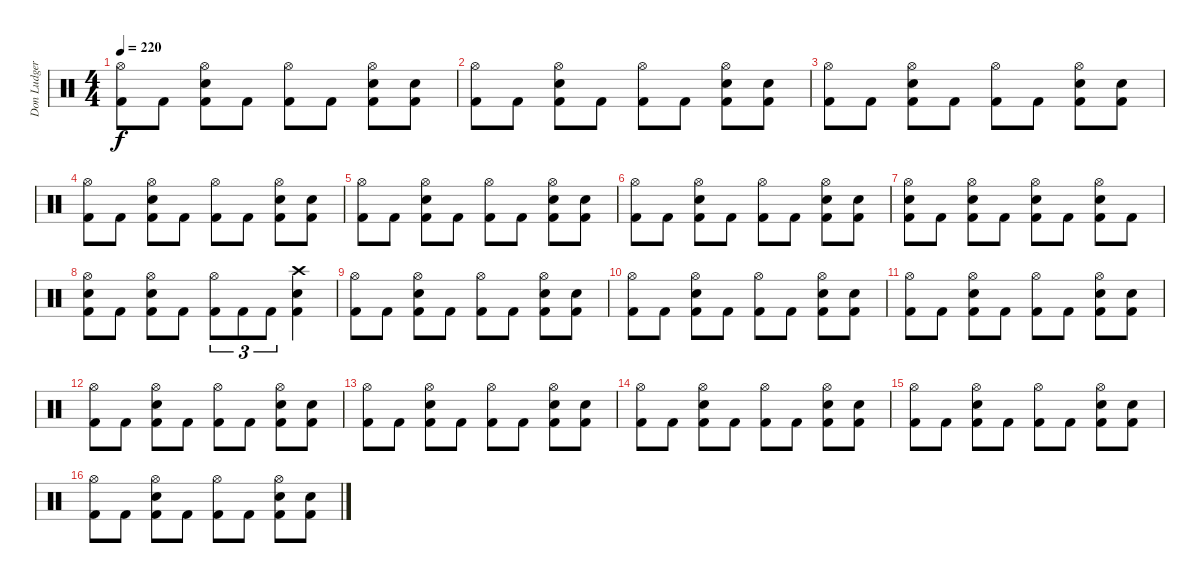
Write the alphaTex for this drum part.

\track ("Don Ludger" "Don Ludger") {instrument percussion}
\staff {score}
\articulation defaults
\ts (4 4)
\tempo 220
\clef neutral
\ks c
("Hi-Hat (open)" "Kick (hit) 2").8{dy f} "Kick (hit) 2".8 ("Hi-Hat (open)" "Electric Snare (hit)" "Kick (hit) 2").8 "Kick (hit) 2".8 ("Hi-Hat (open)" "Kick (hit) 2").8 "Kick (hit) 2".8 ("Hi-Hat (open)" "Electric Snare (hit)" "Kick (hit) 2").8 ("Electric Snare (hit)" "Kick (hit) 2").8 |
("Hi-Hat (open)" "Kick (hit) 2").8 "Kick (hit) 2".8 ("Hi-Hat (open)" "Electric Snare (hit)" "Kick (hit) 2").8 "Kick (hit) 2".8 ("Hi-Hat (open)" "Kick (hit) 2").8 "Kick (hit) 2".8 ("Hi-Hat (open)" "Electric Snare (hit)" "Kick (hit) 2").8 ("Electric Snare (hit)" "Kick (hit) 2").8 |
("Hi-Hat (open)" "Kick (hit) 2").8 "Kick (hit) 2".8 ("Hi-Hat (open)" "Electric Snare (hit)" "Kick (hit) 2").8 "Kick (hit) 2".8 ("Hi-Hat (open)" "Kick (hit) 2").8 "Kick (hit) 2".8 ("Hi-Hat (open)" "Electric Snare (hit)" "Kick (hit) 2").8 ("Electric Snare (hit)" "Kick (hit) 2").8 |
("Hi-Hat (open)" "Kick (hit) 2").8 "Kick (hit) 2".8 ("Hi-Hat (open)" "Electric Snare (hit)" "Kick (hit) 2").8 "Kick (hit) 2".8 ("Hi-Hat (open)" "Kick (hit) 2").8 "Kick (hit) 2".8 ("Hi-Hat (open)" "Electric Snare (hit)" "Kick (hit) 2").8 ("Electric Snare (hit)" "Kick (hit) 2").8 |
("Hi-Hat (open)" "Kick (hit) 2").8 "Kick (hit) 2".8 ("Hi-Hat (open)" "Electric Snare (hit)" "Kick (hit) 2").8 "Kick (hit) 2".8 ("Hi-Hat (open)" "Kick (hit) 2").8 "Kick (hit) 2".8 ("Hi-Hat (open)" "Electric Snare (hit)" "Kick (hit) 2").8 ("Electric Snare (hit)" "Kick (hit) 2").8 |
("Hi-Hat (open)" "Kick (hit) 2").8 "Kick (hit) 2".8 ("Hi-Hat (open)" "Electric Snare (hit)" "Kick (hit) 2").8 "Kick (hit) 2".8 ("Hi-Hat (open)" "Kick (hit) 2").8 "Kick (hit) 2".8 ("Hi-Hat (open)" "Electric Snare (hit)" "Kick (hit) 2").8 ("Electric Snare (hit)" "Kick (hit) 2").8 |
("Hi-Hat (open)" "Electric Snare (hit)" "Kick (hit) 2").8 "Kick (hit) 2".8 ("Hi-Hat (open)" "Electric Snare (hit)" "Kick (hit) 2").8 "Kick (hit) 2".8 ("Hi-Hat (open)" "Electric Snare (hit)" "Kick (hit) 2").8 "Kick (hit) 2".8 ("Hi-Hat (open)" "Electric Snare (hit)" "Kick (hit) 2").8 "Kick (hit) 2".8 |
("Hi-Hat (open)" "Electric Snare (hit)" "Kick (hit) 2").8 "Kick (hit) 2".8 ("Hi-Hat (open)" "Electric Snare (hit)" "Kick (hit) 2").8 "Kick (hit) 2".8 ("Hi-Hat (open)" "Kick (hit) 2").8{tu (3 2)} "Kick (hit) 2".8{tu (3 2)} "Kick (hit) 2".8{tu (3 2)} ("Crash high (hit)" "Electric Snare (hit)" "Kick (hit) 2").4 |
("Hi-Hat (open)" "Kick (hit) 2").8 "Kick (hit) 2".8 ("Hi-Hat (open)" "Electric Snare (hit)" "Kick (hit) 2").8 "Kick (hit) 2".8 ("Hi-Hat (open)" "Kick (hit) 2").8 "Kick (hit) 2".8 ("Hi-Hat (open)" "Electric Snare (hit)" "Kick (hit) 2").8 ("Electric Snare (hit)" "Kick (hit) 2").8 |
("Hi-Hat (open)" "Kick (hit) 2").8 "Kick (hit) 2".8 ("Hi-Hat (open)" "Electric Snare (hit)" "Kick (hit) 2").8 "Kick (hit) 2".8 ("Hi-Hat (open)" "Kick (hit) 2").8 "Kick (hit) 2".8 ("Hi-Hat (open)" "Electric Snare (hit)" "Kick (hit) 2").8 ("Electric Snare (hit)" "Kick (hit) 2").8 |
("Hi-Hat (open)" "Kick (hit) 2").8 "Kick (hit) 2".8 ("Hi-Hat (open)" "Electric Snare (hit)" "Kick (hit) 2").8 "Kick (hit) 2".8 ("Hi-Hat (open)" "Kick (hit) 2").8 "Kick (hit) 2".8 ("Hi-Hat (open)" "Electric Snare (hit)" "Kick (hit) 2").8 ("Electric Snare (hit)" "Kick (hit) 2").8 |
("Hi-Hat (open)" "Kick (hit) 2").8 "Kick (hit) 2".8 ("Hi-Hat (open)" "Electric Snare (hit)" "Kick (hit) 2").8 "Kick (hit) 2".8 ("Hi-Hat (open)" "Kick (hit) 2").8 "Kick (hit) 2".8 ("Hi-Hat (open)" "Electric Snare (hit)" "Kick (hit) 2").8 ("Electric Snare (hit)" "Kick (hit) 2").8 |
("Hi-Hat (open)" "Kick (hit) 2").8 "Kick (hit) 2".8 ("Hi-Hat (open)" "Electric Snare (hit)" "Kick (hit) 2").8 "Kick (hit) 2".8 ("Hi-Hat (open)" "Kick (hit) 2").8 "Kick (hit) 2".8 ("Hi-Hat (open)" "Electric Snare (hit)" "Kick (hit) 2").8 ("Electric Snare (hit)" "Kick (hit) 2").8 |
("Hi-Hat (open)" "Kick (hit) 2").8 "Kick (hit) 2".8 ("Hi-Hat (open)" "Electric Snare (hit)" "Kick (hit) 2").8 "Kick (hit) 2".8 ("Hi-Hat (open)" "Kick (hit) 2").8 "Kick (hit) 2".8 ("Hi-Hat (open)" "Electric Snare (hit)" "Kick (hit) 2").8 ("Electric Snare (hit)" "Kick (hit) 2").8 |
("Hi-Hat (open)" "Kick (hit) 2").8 "Kick (hit) 2".8 ("Hi-Hat (open)" "Electric Snare (hit)" "Kick (hit) 2").8 "Kick (hit) 2".8 ("Hi-Hat (open)" "Kick (hit) 2").8 "Kick (hit) 2".8 ("Hi-Hat (open)" "Electric Snare (hit)" "Kick (hit) 2").8 ("Electric Snare (hit)" "Kick (hit) 2").8 |
("Hi-Hat (open)" "Kick (hit) 2").8 "Kick (hit) 2".8 ("Hi-Hat (open)" "Electric Snare (hit)" "Kick (hit) 2").8 "Kick (hit) 2".8 ("Hi-Hat (open)" "Kick (hit) 2").8 "Kick (hit) 2".8 ("Hi-Hat (open)" "Electric Snare (hit)" "Kick (hit) 2").8 ("Electric Snare (hit)" "Kick (hit) 2").8
